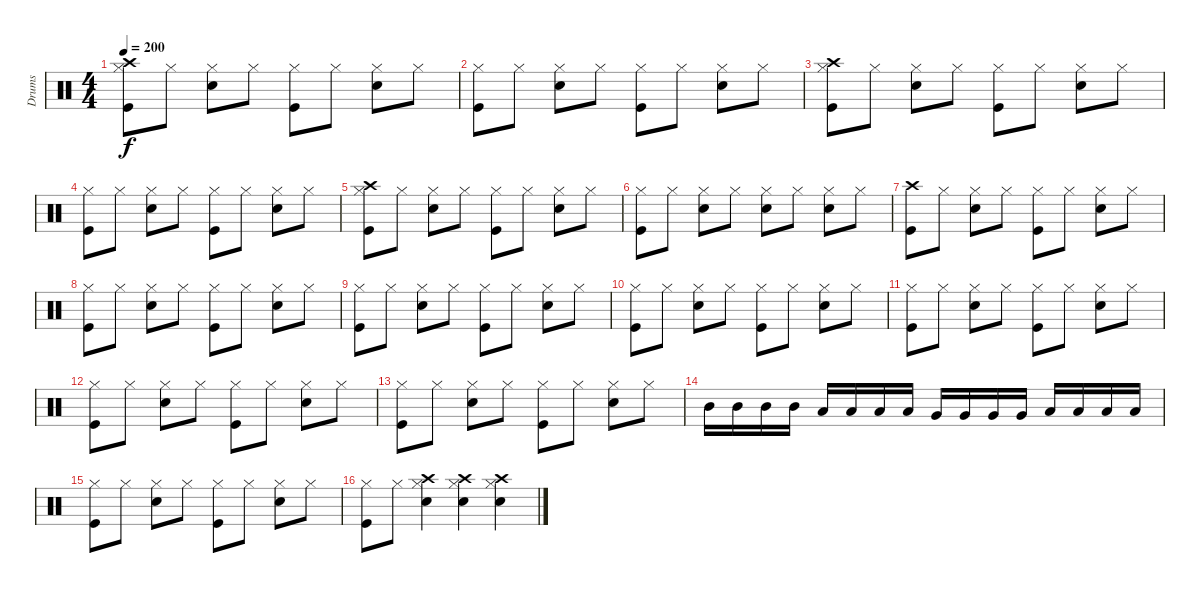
\track ("Drums" "Drums") {instrument percussion}
\staff {score}
\articulation defaults
\ts (4 4)
\tempo 200
\clef neutral
\ks c
("Hi-Hat (closed)" "Crash high (hit)" "Kick (hit)").8{dy f} "Hi-Hat (closed)".8 ("Hi-Hat (closed)" "Electric Snare (hit)").8 "Hi-Hat (closed)".8 ("Hi-Hat (closed)" "Kick (hit)").8 "Hi-Hat (closed)".8 ("Hi-Hat (closed)" "Electric Snare (hit)").8 "Hi-Hat (closed)".8 |
("Hi-Hat (closed)" "Kick (hit)").8 "Hi-Hat (closed)".8 ("Hi-Hat (closed)" "Electric Snare (hit)").8 "Hi-Hat (closed)".8 ("Hi-Hat (closed)" "Kick (hit)").8 "Hi-Hat (closed)".8 ("Hi-Hat (closed)" "Electric Snare (hit)").8 "Hi-Hat (closed)".8 |
("Hi-Hat (closed)" "Crash high (hit)" "Kick (hit)").8 "Hi-Hat (closed)".8 ("Hi-Hat (closed)" "Electric Snare (hit)").8 "Hi-Hat (closed)".8 ("Hi-Hat (closed)" "Kick (hit)").8 "Hi-Hat (closed)".8 ("Hi-Hat (closed)" "Electric Snare (hit)").8 "Hi-Hat (closed)".8 |
("Hi-Hat (closed)" "Kick (hit)").8 "Hi-Hat (closed)".8 ("Hi-Hat (closed)" "Electric Snare (hit)").8 "Hi-Hat (closed)".8 ("Hi-Hat (closed)" "Kick (hit)").8 "Hi-Hat (closed)".8 ("Hi-Hat (closed)" "Electric Snare (hit)").8 "Hi-Hat (closed)".8 |
("Hi-Hat (closed)" "Crash high (hit)" "Kick (hit)").8 "Hi-Hat (closed)".8 ("Hi-Hat (closed)" "Electric Snare (hit)").8 "Hi-Hat (closed)".8 ("Hi-Hat (closed)" "Kick (hit)").8 "Hi-Hat (closed)".8 ("Hi-Hat (closed)" "Electric Snare (hit)").8 "Hi-Hat (closed)".8 |
("Hi-Hat (closed)" "Kick (hit)").8 "Hi-Hat (closed)".8 ("Hi-Hat (closed)" "Electric Snare (hit)").8 "Hi-Hat (closed)".8 ("Hi-Hat (closed)" "Electric Snare (hit)").8 "Hi-Hat (closed)".8 ("Hi-Hat (closed)" "Electric Snare (hit)").8 "Hi-Hat (closed)".8 |
("Crash high (hit)" "Kick (hit)").8 "Hi-Hat (closed)".8 ("Hi-Hat (closed)" "Electric Snare (hit)").8 "Hi-Hat (closed)".8 ("Hi-Hat (closed)" "Kick (hit)").8 "Hi-Hat (closed)".8 ("Hi-Hat (closed)" "Electric Snare (hit)").8 "Hi-Hat (closed)".8 |
("Hi-Hat (closed)" "Kick (hit)").8 "Hi-Hat (closed)".8 ("Hi-Hat (closed)" "Electric Snare (hit)").8 "Hi-Hat (closed)".8 ("Hi-Hat (closed)" "Kick (hit)").8 "Hi-Hat (closed)".8 ("Hi-Hat (closed)" "Electric Snare (hit)").8 "Hi-Hat (closed)".8 |
("Hi-Hat (closed)" "Kick (hit)").8 "Hi-Hat (closed)".8 ("Hi-Hat (closed)" "Electric Snare (hit)").8 "Hi-Hat (closed)".8 ("Hi-Hat (closed)" "Kick (hit)").8 "Hi-Hat (closed)".8 ("Hi-Hat (closed)" "Electric Snare (hit)").8 "Hi-Hat (closed)".8 |
("Hi-Hat (closed)" "Kick (hit)").8 "Hi-Hat (closed)".8 ("Hi-Hat (closed)" "Electric Snare (hit)").8 "Hi-Hat (closed)".8 ("Hi-Hat (closed)" "Kick (hit)").8 "Hi-Hat (closed)".8 ("Hi-Hat (closed)" "Electric Snare (hit)").8 "Hi-Hat (closed)".8 |
("Hi-Hat (closed)" "Kick (hit)").8 "Hi-Hat (closed)".8 ("Hi-Hat (closed)" "Electric Snare (hit)").8 "Hi-Hat (closed)".8 ("Hi-Hat (closed)" "Kick (hit)").8 "Hi-Hat (closed)".8 ("Hi-Hat (closed)" "Electric Snare (hit)").8 "Hi-Hat (closed)".8 |
("Hi-Hat (closed)" "Kick (hit)").8 "Hi-Hat (closed)".8 ("Hi-Hat (closed)" "Electric Snare (hit)").8 "Hi-Hat (closed)".8 ("Hi-Hat (closed)" "Kick (hit)").8 "Hi-Hat (closed)".8 ("Hi-Hat (closed)" "Electric Snare (hit)").8 "Hi-Hat (closed)".8 |
("Hi-Hat (closed)" "Kick (hit)").8 "Hi-Hat (closed)".8 ("Hi-Hat (closed)" "Electric Snare (hit)").8 "Hi-Hat (closed)".8 ("Hi-Hat (closed)" "Kick (hit)").8 "Hi-Hat (closed)".8 ("Hi-Hat (closed)" "Electric Snare (hit)").8 "Hi-Hat (closed)".8 |
"Mid Tom (hit)".16 "Mid Tom (hit)".16 "Mid Tom (hit)".16 "Mid Tom (hit)".16 "Low Tom (hit)".16 "Low Tom (hit)".16 "Low Tom (hit)".16 "Low Tom (hit)".16 "Very Low Tom (hit)".16 "Very Low Tom (hit)".16 "Very Low Tom (hit)".16 "Very Low Tom (hit)".16 "Low Floor Tom (hit)".16 "Low Floor Tom (hit)".16 "Low Floor Tom (hit)".16 "Low Floor Tom (hit)".16 |
("Hi-Hat (closed)" "Kick (hit)").8 "Hi-Hat (closed)".8 ("Hi-Hat (closed)" "Electric Snare (hit)").8 "Hi-Hat (closed)".8 ("Hi-Hat (closed)" "Kick (hit)").8 "Hi-Hat (closed)".8 ("Hi-Hat (closed)" "Electric Snare (hit)").8 "Hi-Hat (closed)".8 |
("Hi-Hat (closed)" "Kick (hit)").8 "Hi-Hat (closed)".8 ("Hi-Hat (closed)" "Electric Snare (hit)" "Crash high (hit)").4 ("Hi-Hat (closed)" "Electric Snare (hit)" "Crash high (hit)").4 ("Hi-Hat (closed)" "Electric Snare (hit)" "Crash high (hit)").4
